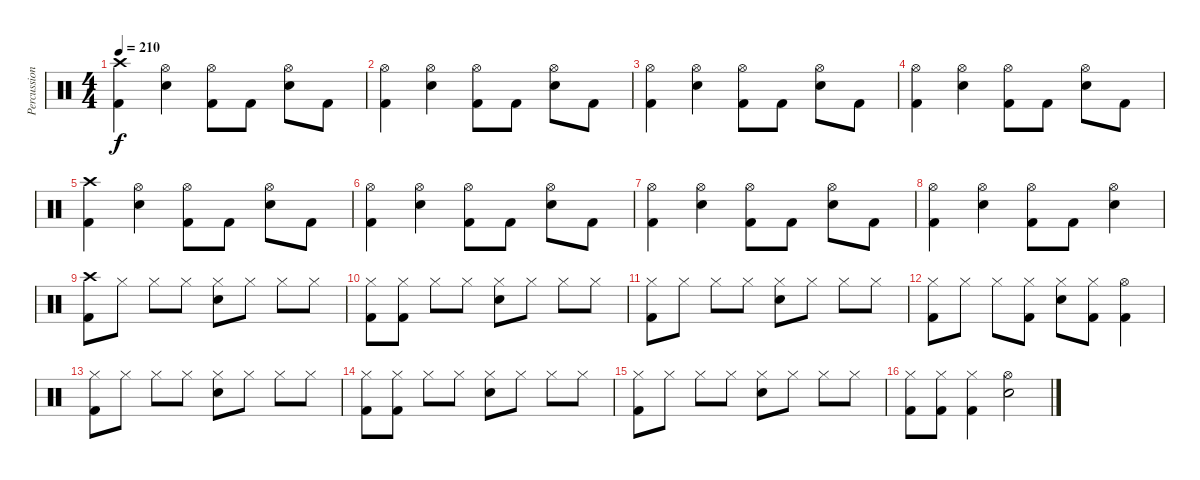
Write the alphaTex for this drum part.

\track ("Percussion" "Percussion") {instrument percussion}
\staff {score}
\articulation defaults
\ts (4 4)
\tempo 210
\clef neutral
\ks c
("Crash high (hit)" "Kick (hit) 2").4{dy f} ("Hi-Hat (open)" "Electric Snare (hit)").4 ("Hi-Hat (open)" "Kick (hit) 2").8 "Kick (hit) 2".8 ("Hi-Hat (open)" "Electric Snare (hit)").8 "Kick (hit) 2".8 |
("Hi-Hat (open)" "Kick (hit) 2").4 ("Hi-Hat (open)" "Electric Snare (hit)").4 ("Hi-Hat (open)" "Kick (hit) 2").8 "Kick (hit) 2".8 ("Hi-Hat (open)" "Electric Snare (hit)").8 "Kick (hit) 2".8 |
("Hi-Hat (open)" "Kick (hit) 2").4 ("Hi-Hat (open)" "Electric Snare (hit)").4 ("Hi-Hat (open)" "Kick (hit) 2").8 "Kick (hit) 2".8 ("Hi-Hat (open)" "Electric Snare (hit)").8 "Kick (hit) 2".8 |
("Hi-Hat (open)" "Kick (hit) 2").4 ("Hi-Hat (open)" "Electric Snare (hit)").4 ("Hi-Hat (open)" "Kick (hit) 2").8 "Kick (hit) 2".8 ("Hi-Hat (open)" "Electric Snare (hit)").8 "Kick (hit) 2".8 |
("Crash high (hit)" "Kick (hit) 2").4 ("Hi-Hat (open)" "Electric Snare (hit)").4 ("Hi-Hat (open)" "Kick (hit) 2").8 "Kick (hit) 2".8 ("Hi-Hat (open)" "Electric Snare (hit)").8 "Kick (hit) 2".8 |
("Hi-Hat (open)" "Kick (hit) 2").4 ("Hi-Hat (open)" "Electric Snare (hit)").4 ("Hi-Hat (open)" "Kick (hit) 2").8 "Kick (hit) 2".8 ("Hi-Hat (open)" "Electric Snare (hit)").8 "Kick (hit) 2".8 |
("Hi-Hat (open)" "Kick (hit) 2").4 ("Hi-Hat (open)" "Electric Snare (hit)").4 ("Hi-Hat (open)" "Kick (hit) 2").8 "Kick (hit) 2".8 ("Hi-Hat (open)" "Electric Snare (hit)").8 "Kick (hit) 2".8 |
("Hi-Hat (open)" "Kick (hit) 2").4 ("Hi-Hat (open)" "Electric Snare (hit)").4 ("Hi-Hat (open)" "Kick (hit) 2").8 "Kick (hit) 2".8 ("Hi-Hat (open)" "Electric Snare (hit)").4 |
("Crash high (hit)" "Kick (hit) 2").8 "Hi-Hat (closed)".8 "Hi-Hat (closed)".8 "Hi-Hat (closed)".8 ("Hi-Hat (closed)" "Electric Snare (hit)").8 "Hi-Hat (closed)".8 "Hi-Hat (closed)".8 "Hi-Hat (closed)".8 |
("Hi-Hat (closed)" "Kick (hit) 2").8 ("Hi-Hat (closed)" "Kick (hit) 2").8 "Hi-Hat (closed)".8 "Hi-Hat (closed)".8 ("Hi-Hat (closed)" "Electric Snare (hit)").8 "Hi-Hat (closed)".8 "Hi-Hat (closed)".8 "Hi-Hat (closed)".8 |
("Hi-Hat (closed)" "Kick (hit) 2").8 "Hi-Hat (closed)".8 "Hi-Hat (closed)".8 "Hi-Hat (closed)".8 ("Hi-Hat (closed)" "Electric Snare (hit)").8 "Hi-Hat (closed)".8 "Hi-Hat (closed)".8 "Hi-Hat (closed)".8 |
("Hi-Hat (closed)" "Kick (hit) 2").8 "Hi-Hat (closed)".8 "Hi-Hat (closed)".8 ("Hi-Hat (closed)" "Kick (hit) 2").8 ("Hi-Hat (closed)" "Electric Snare (hit)").8 ("Hi-Hat (closed)" "Kick (hit) 2").8 ("Hi-Hat (open)" "Kick (hit) 2").4 |
("Hi-Hat (closed)" "Kick (hit) 2").8 "Hi-Hat (closed)".8 "Hi-Hat (closed)".8 "Hi-Hat (closed)".8 ("Hi-Hat (closed)" "Electric Snare (hit)").8 "Hi-Hat (closed)".8 "Hi-Hat (closed)".8 "Hi-Hat (closed)".8 |
("Hi-Hat (closed)" "Kick (hit) 2").8 ("Hi-Hat (closed)" "Kick (hit) 2").8 "Hi-Hat (closed)".8 "Hi-Hat (closed)".8 ("Hi-Hat (closed)" "Electric Snare (hit)").8 "Hi-Hat (closed)".8 "Hi-Hat (closed)".8 "Hi-Hat (closed)".8 |
("Hi-Hat (closed)" "Kick (hit) 2").8 "Hi-Hat (closed)".8 "Hi-Hat (closed)".8 "Hi-Hat (closed)".8 ("Hi-Hat (closed)" "Electric Snare (hit)").8 "Hi-Hat (closed)".8 "Hi-Hat (closed)".8 "Hi-Hat (closed)".8 |
("Hi-Hat (closed)" "Kick (hit) 2").8 ("Hi-Hat (closed)" "Kick (hit) 2").8 ("Hi-Hat (closed)" "Kick (hit) 2").4 ("Hi-Hat (open)" "Electric Snare (hit)").2
